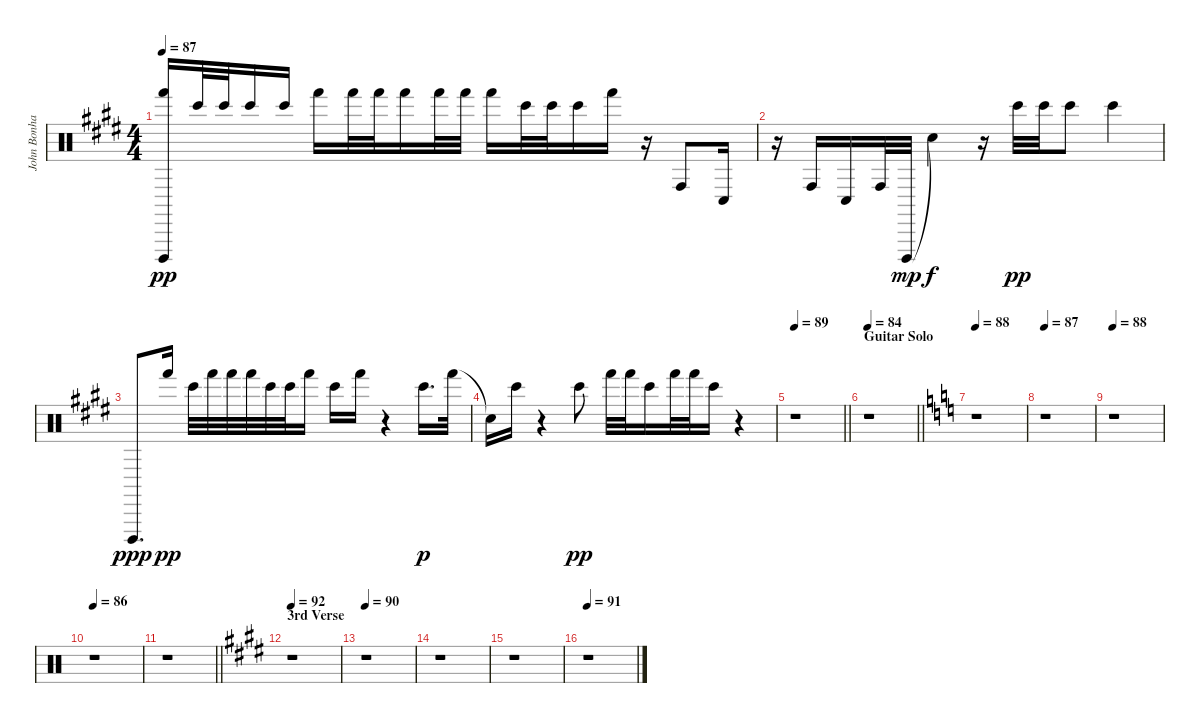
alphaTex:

\track ("John Bonham Percussion" "John Bonha") {instrument percussion}
\staff {score}
\articulation defaults
\ts (4 4)
\tempo 87
\clef neutral
\ks e
("Cuica (open)" "Hand (hit)").16{dy pp} "Bongo High (hit)".32 "Bongo High (hit)".32 "Bongo High (hit)".16 "Bongo High (hit)".16 "Hand (hit)".16 "Hand (hit)".32 "Hand (hit)".32 "Hand (hit)".16 "Hand (hit)".32 "Hand (hit)".32 "Hand (hit)".16 "Bongo High (hit)".32 "Bongo High (hit)".32 "Bongo High (hit)".16 "Hand (hit)".16 r.16 "Conga high (hit)".8 "Conga low (hit)".16 |
r.16 "Conga high (hit)".16 "Conga low (hit)".16 "Conga high (hit)".32 "Cuica (open)".32{dy mp} "Snare (hit)"{t}.4{dy f} r.16 "Bongo High (hit)".32{dy pp} "Bongo High (hit)".32 "Bongo High (hit)".8 "Bongo High (hit)".4 |
"Cuica (open)".8{d dy ppp} "Hand (hit)".16{dy pp} "Bongo High (hit)".32 "Hand (hit)".32 "Hand (hit)".32 "Hand (hit)".32 "Bongo High (hit)".32 "Bongo High (hit)".32 "Hand (hit)".16 "Bongo High (hit)".16 "Hand (hit)".16 r.4 "Bongo High (hit)".16{d dy p} "Hand (hit)".32 |
"Snare (hit)"{t}.16 "Bongo High (hit)".16 r.4 "Bongo High (hit)".8{dy pp} "Hand (hit)".32 "Hand (hit)".32 "Bongo High (hit)".16 "Hand (hit)".32 "Hand (hit)".32 "Bongo High (hit)".16 r.4 |
\tempo 89
\barLineRight lightlight
r.1 |
\section ("" "Guitar Solo")
\tempo 84
\barLineRight lightlight
r.1 |
\tempo 88
\ks c
r.1 |
\tempo 87
r.1 |
\tempo 88
r.1 |
\tempo 86
r.1 |
\barLineRight lightlight
r.1 |
\section ("" "3rd Verse")
\tempo 92
\ks e
r.1 |
\tempo 90
r.1 |
r.1 |
r.1 |
\tempo 91
r.1
